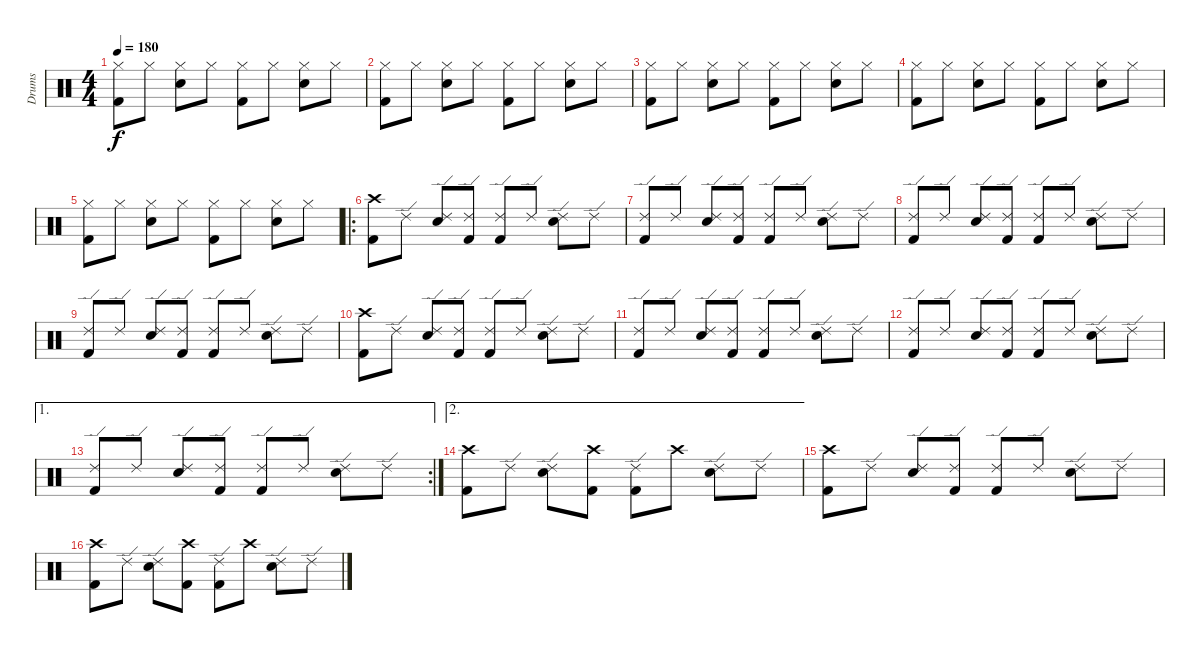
\track ("Drums" "Drums") {instrument percussion}
\staff {score}
\articulation defaults
\ts (4 4)
\tempo 180
\clef neutral
\ks c
("Hi-Hat (closed)" "Kick (hit) 2").8{dy f} "Hi-Hat (closed)".8 ("Hi-Hat (closed)" "Electric Snare (hit)").8 "Hi-Hat (closed)".8 ("Hi-Hat (closed)" "Kick (hit) 2").8 "Hi-Hat (closed)".8 ("Hi-Hat (closed)" "Electric Snare (hit)").8 "Hi-Hat (closed)".8 |
("Hi-Hat (closed)" "Kick (hit) 2").8 "Hi-Hat (closed)".8 ("Hi-Hat (closed)" "Electric Snare (hit)").8 "Hi-Hat (closed)".8 ("Hi-Hat (closed)" "Kick (hit) 2").8 "Hi-Hat (closed)".8 ("Hi-Hat (closed)" "Electric Snare (hit)").8 "Hi-Hat (closed)".8 |
("Hi-Hat (closed)" "Kick (hit) 2").8 "Hi-Hat (closed)".8 ("Hi-Hat (closed)" "Electric Snare (hit)").8 "Hi-Hat (closed)".8 ("Hi-Hat (closed)" "Kick (hit) 2").8 "Hi-Hat (closed)".8 ("Hi-Hat (closed)" "Electric Snare (hit)").8 "Hi-Hat (closed)".8 |
("Hi-Hat (closed)" "Kick (hit) 2").8 "Hi-Hat (closed)".8 ("Hi-Hat (closed)" "Electric Snare (hit)").8 "Hi-Hat (closed)".8 ("Hi-Hat (closed)" "Kick (hit) 2").8 "Hi-Hat (closed)".8 ("Hi-Hat (closed)" "Electric Snare (hit)").8 "Hi-Hat (closed)".8 |
("Hi-Hat (closed)" "Kick (hit) 2").8 "Hi-Hat (closed)".8 ("Hi-Hat (closed)" "Electric Snare (hit)").8 "Hi-Hat (closed)".8 ("Hi-Hat (closed)" "Kick (hit) 2").8 "Hi-Hat (closed)".8 ("Hi-Hat (closed)" "Electric Snare (hit)").8 "Hi-Hat (closed)".8 |
\ro
("Crash high (hit)" "Kick (hit) 2").8 "Ride (edge) 2".8 ("Ride (edge) 2" "Electric Snare (hit)").8 ("Ride (edge) 2" "Kick (hit) 2").8 ("Ride (edge) 2" "Kick (hit) 2").8 "Ride (edge) 2".8 ("Ride (edge) 2" "Electric Snare (hit)").8 "Ride (edge) 2".8 |
("Ride (edge) 2" "Kick (hit) 2").8 "Ride (edge) 2".8 ("Ride (edge) 2" "Electric Snare (hit)").8 ("Ride (edge) 2" "Kick (hit) 2").8 ("Ride (edge) 2" "Kick (hit) 2").8 "Ride (edge) 2".8 ("Ride (edge) 2" "Electric Snare (hit)").8 "Ride (edge) 2".8 |
("Ride (edge) 2" "Kick (hit) 2").8 "Ride (edge) 2".8 ("Ride (edge) 2" "Electric Snare (hit)").8 ("Ride (edge) 2" "Kick (hit) 2").8 ("Ride (edge) 2" "Kick (hit) 2").8 "Ride (edge) 2".8 ("Ride (edge) 2" "Electric Snare (hit)").8 "Ride (edge) 2".8 |
("Ride (edge) 2" "Kick (hit) 2").8 "Ride (edge) 2".8 ("Ride (edge) 2" "Electric Snare (hit)").8 ("Ride (edge) 2" "Kick (hit) 2").8 ("Ride (edge) 2" "Kick (hit) 2").8 "Ride (edge) 2".8 ("Ride (edge) 2" "Electric Snare (hit)").8 "Ride (edge) 2".8 |
("Crash high (hit)" "Kick (hit) 2").8 "Ride (edge) 2".8 ("Ride (edge) 2" "Electric Snare (hit)").8 ("Ride (edge) 2" "Kick (hit) 2").8 ("Ride (edge) 2" "Kick (hit) 2").8 "Ride (edge) 2".8 ("Ride (edge) 2" "Electric Snare (hit)").8 "Ride (edge) 2".8 |
("Ride (edge) 2" "Kick (hit) 2").8 "Ride (edge) 2".8 ("Ride (edge) 2" "Electric Snare (hit)").8 ("Ride (edge) 2" "Kick (hit) 2").8 ("Ride (edge) 2" "Kick (hit) 2").8 "Ride (edge) 2".8 ("Ride (edge) 2" "Electric Snare (hit)").8 "Ride (edge) 2".8 |
("Ride (edge) 2" "Kick (hit) 2").8 "Ride (edge) 2".8 ("Ride (edge) 2" "Electric Snare (hit)").8 ("Ride (edge) 2" "Kick (hit) 2").8 ("Ride (edge) 2" "Kick (hit) 2").8 "Ride (edge) 2".8 ("Ride (edge) 2" "Electric Snare (hit)").8 "Ride (edge) 2".8 |
\ae 1
\rc 2
("Ride (edge) 2" "Kick (hit) 2").8 "Ride (edge) 2".8 ("Ride (edge) 2" "Electric Snare (hit)").8 ("Ride (edge) 2" "Kick (hit) 2").8 ("Ride (edge) 2" "Kick (hit) 2").8 "Ride (edge) 2".8 ("Ride (edge) 2" "Electric Snare (hit)").8 "Ride (edge) 2".8 |
\ae 2
("Crash high (hit)" "Kick (hit) 2").8 "Ride (edge) 2".8 ("Ride (edge) 2" "Electric Snare (hit)").8 ("Crash high (hit)" "Kick (hit) 2").8 ("Ride (edge) 2" "Kick (hit) 2").8 "Crash high (hit)".8 ("Ride (edge) 2" "Electric Snare (hit)").8 "Ride (edge) 2".8 |
("Crash high (hit)" "Kick (hit) 2").8 "Ride (edge) 2".8 ("Ride (edge) 2" "Electric Snare (hit)").8 ("Ride (edge) 2" "Kick (hit) 2").8 ("Ride (edge) 2" "Kick (hit) 2").8 "Ride (edge) 2".8 ("Ride (edge) 2" "Electric Snare (hit)").8 "Ride (edge) 2".8 |
("Crash high (hit)" "Kick (hit) 2").8 "Ride (edge) 2".8 ("Ride (edge) 2" "Electric Snare (hit)").8 ("Crash high (hit)" "Kick (hit) 2").8 ("Ride (edge) 2" "Kick (hit) 2").8 "Crash high (hit)".8 ("Ride (edge) 2" "Electric Snare (hit)").8 "Ride (edge) 2".8
